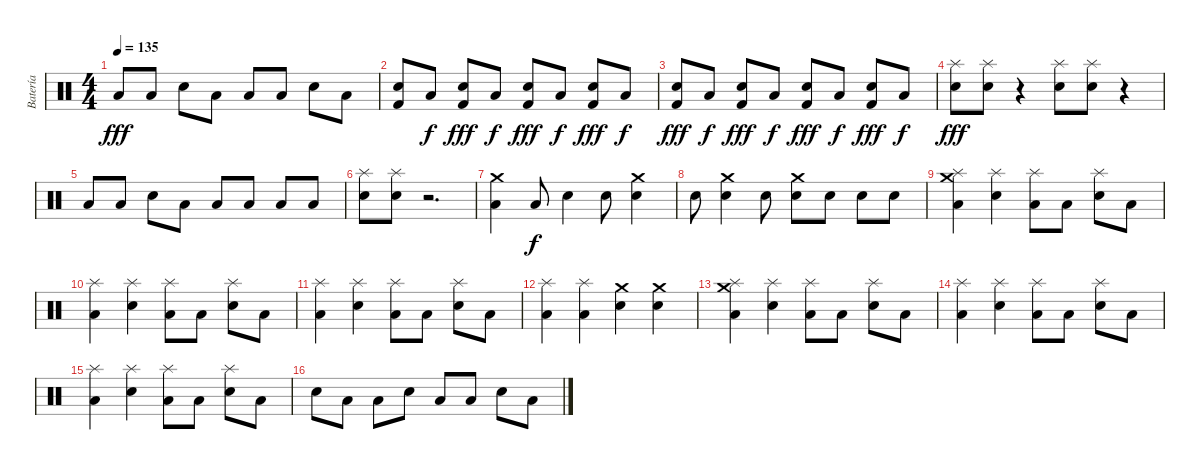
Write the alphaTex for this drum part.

\track ("Batería" "Batería") {instrument percussion}
\staff {score}
\articulation defaults
\ts (4 4)
\tempo 135
\clef neutral
\ks c "Low Floor Tom (hit)".8{dy fff} "Low Floor Tom (hit)".8 "Electric Snare (hit)".8 "Low Floor Tom (hit)".8 "Low Floor Tom (hit)".8 "Low Floor Tom (hit)".8 "Electric Snare (hit)".8 "Low Floor Tom (hit)".8
|
("Electric Snare (hit)" "Kick (hit) 2").8 "Low Floor Tom (hit)".8{dy f} ("Electric Snare (hit)" "Kick (hit) 2").8{dy fff} "Low Floor Tom (hit)".8{dy f} ("Electric Snare (hit)" "Kick (hit) 2").8{dy fff} "Low Floor Tom (hit)".8{dy f} ("Electric Snare (hit)" "Kick (hit) 2").8{dy fff} "Low Floor Tom (hit)".8{dy f} |
("Electric Snare (hit)" "Kick (hit) 2").8{dy fff} "Low Floor Tom (hit)".8{dy f} ("Electric Snare (hit)" "Kick (hit) 2").8{dy fff} "Low Floor Tom (hit)".8{dy f} ("Electric Snare (hit)" "Kick (hit) 2").8{dy fff} "Low Floor Tom (hit)".8{dy f} ("Electric Snare (hit)" "Kick (hit) 2").8{dy fff} "Low Floor Tom (hit)".8{dy f} |
("Splash (hit)" "Electric Snare (hit)").8{dy fff} ("Splash (hit)" "Electric Snare (hit)").8 r.4 ("Splash (hit)" "Electric Snare (hit)").8 ("Splash (hit)" "Electric Snare (hit)").8 r.4 |
"Low Floor Tom (hit)".8 "Low Floor Tom (hit)".8 "Electric Snare (hit)".8 "Low Floor Tom (hit)".8 "Low Floor Tom (hit)".8 "Low Floor Tom (hit)".8 "Low Floor Tom (hit)".8 "Low Floor Tom (hit)".8 |
("Splash (hit)" "Electric Snare (hit)").8 ("Splash (hit)" "Electric Snare (hit)").8 r.2{d} |
("Crash medium (hit)" "Low Floor Tom (hit)").4 "Low Floor Tom (hit)".8{dy f} "Electric Snare (hit)".4 "Electric Snare (hit)".8 ("Crash medium (hit)" "Electric Snare (hit)").4 |
"Electric Snare (hit)".8 ("Crash medium (hit)" "Electric Snare (hit)").4 "Electric Snare (hit)".8 ("Crash medium (hit)" "Electric Snare (hit)").8 "Electric Snare (hit)".8 "Electric Snare (hit)".8 "Electric Snare (hit)".8 |
("Crash medium (hit)" "Splash (hit)" "Low Floor Tom (hit)").4 ("Splash (hit)" "Electric Snare (hit)").4 ("Splash (hit)" "Low Floor Tom (hit)").8 "Low Floor Tom (hit)".8 ("Splash (hit)" "Electric Snare (hit)").8 "Low Floor Tom (hit)".8 |
("Splash (hit)" "Low Floor Tom (hit)").4 ("Splash (hit)" "Electric Snare (hit)").4 ("Splash (hit)" "Low Floor Tom (hit)").8 "Low Floor Tom (hit)".8 ("Splash (hit)" "Electric Snare (hit)").8 "Low Floor Tom (hit)".8 |
("Splash (hit)" "Low Floor Tom (hit)").4 ("Splash (hit)" "Electric Snare (hit)").4 ("Splash (hit)" "Low Floor Tom (hit)").8 "Low Floor Tom (hit)".8 ("Splash (hit)" "Electric Snare (hit)").8 "Low Floor Tom (hit)".8 |
("Splash (hit)" "Low Floor Tom (hit)").4 ("Splash (hit)" "Low Floor Tom (hit)").4 ("Crash medium (hit)" "Electric Snare (hit)").4 ("Crash medium (hit)" "Electric Snare (hit)").4 |
("Crash medium (hit)" "Splash (hit)" "Low Floor Tom (hit)").4 ("Splash (hit)" "Electric Snare (hit)").4 ("Splash (hit)" "Low Floor Tom (hit)").8 "Low Floor Tom (hit)".8 ("Splash (hit)" "Electric Snare (hit)").8 "Low Floor Tom (hit)".8 |
("Splash (hit)" "Low Floor Tom (hit)").4 ("Splash (hit)" "Electric Snare (hit)").4 ("Splash (hit)" "Low Floor Tom (hit)").8 "Low Floor Tom (hit)".8 ("Splash (hit)" "Electric Snare (hit)").8 "Low Floor Tom (hit)".8 |
("Splash (hit)" "Low Floor Tom (hit)").4 ("Splash (hit)" "Electric Snare (hit)").4 ("Splash (hit)" "Low Floor Tom (hit)").8 "Low Floor Tom (hit)".8 ("Splash (hit)" "Electric Snare (hit)").8 "Low Floor Tom (hit)".8 |
"Electric Snare (hit)".8 "Low Floor Tom (hit)".8 "Low Floor Tom (hit)".8 "Electric Snare (hit)".8 "Low Floor Tom (hit)".8 "Low Floor Tom (hit)".8 "Electric Snare (hit)".8 "Low Floor Tom (hit)".8
